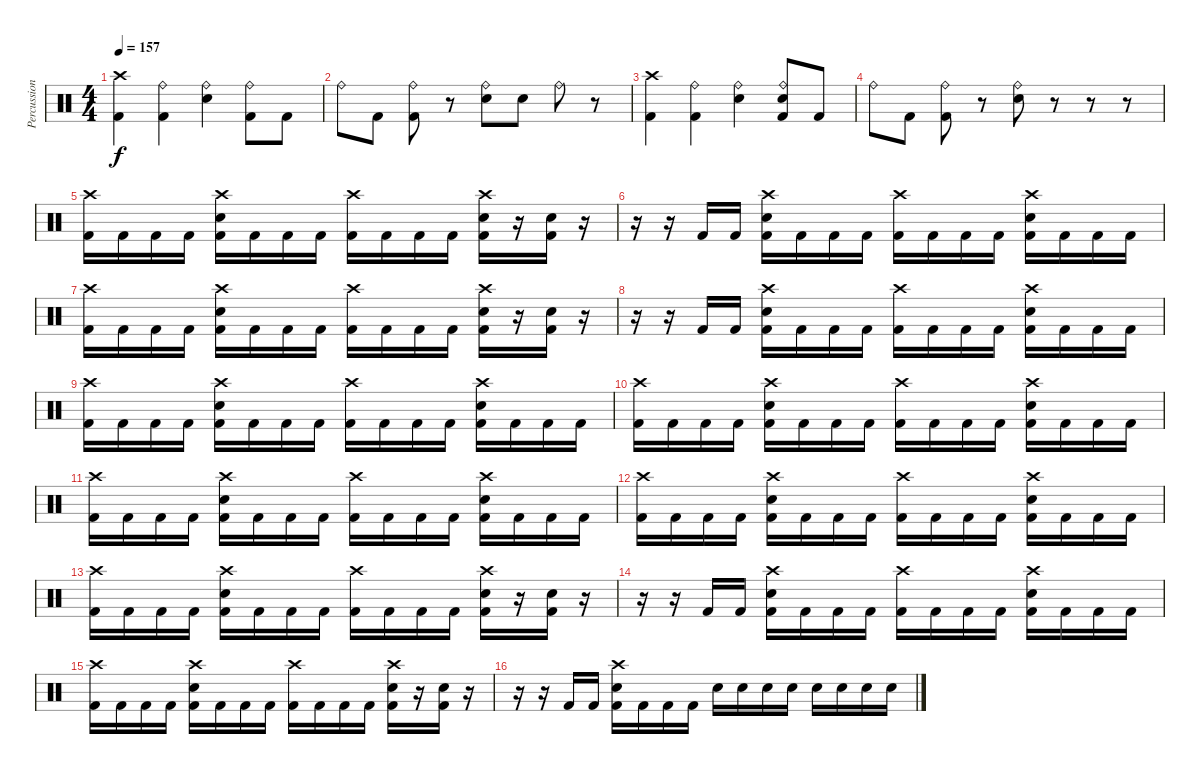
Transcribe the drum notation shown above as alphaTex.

\track ("Percussion" "Percussion") {instrument percussion}
\staff {score}
\articulation defaults
\ts (4 4)
\tempo 157
\clef neutral
\ks c
("Crash high (hit)" "Kick (hit) 2").4{dy f} ("Ride (bell)" "Kick (hit) 2").4 ("Ride (bell)" "Electric Snare (hit)").4 ("Ride (bell)" "Kick (hit) 2").8 "Kick (hit) 2".8 |
"Ride (bell)".8 "Kick (hit) 2".8 ("Ride (bell)" "Kick (hit) 2").8 r.8 ("Ride (bell)" "Electric Snare (hit)").8 "Electric Snare (hit)".8 "Ride (bell)".8 r.8 |
("Crash high (hit)" "Kick (hit) 2").4 ("Ride (bell)" "Kick (hit) 2").4 ("Ride (bell)" "Electric Snare (hit)").4 ("Ride (bell)" "Electric Snare (hit)" "Kick (hit) 2").8 "Kick (hit) 2".8 |
"Ride (bell)".8 "Kick (hit) 2".8 ("Ride (bell)" "Kick (hit) 2").8 r.8 ("Ride (bell)" "Electric Snare (hit)").8 r.8 r.8 r.8 |
("Crash high (hit)" "Kick (hit) 2").16 "Kick (hit) 2".16 "Kick (hit) 2".16 "Kick (hit) 2".16 ("Crash high (hit)" "Electric Snare (hit)" "Kick (hit) 2").16 "Kick (hit) 2".16 "Kick (hit) 2".16 "Kick (hit) 2".16 ("Crash high (hit)" "Kick (hit) 2").16 "Kick (hit) 2".16 "Kick (hit) 2".16 "Kick (hit) 2".16 ("Crash high (hit)" "Electric Snare (hit)" "Kick (hit) 2").16 r.16 ("Electric Snare (hit)" "Kick (hit) 2").16 r.16 |
r.16 r.16 "Kick (hit) 2".16 "Kick (hit) 2".16 ("Crash high (hit)" "Electric Snare (hit)" "Kick (hit) 2").16 "Kick (hit) 2".16 "Kick (hit) 2".16 "Kick (hit) 2".16 ("Crash high (hit)" "Kick (hit) 2").16 "Kick (hit) 2".16 "Kick (hit) 2".16 "Kick (hit) 2".16 ("Crash high (hit)" "Electric Snare (hit)" "Kick (hit) 2").16 "Kick (hit) 2".16 "Kick (hit) 2".16 "Kick (hit) 2".16 |
("Crash high (hit)" "Kick (hit) 2").16 "Kick (hit) 2".16 "Kick (hit) 2".16 "Kick (hit) 2".16 ("Crash high (hit)" "Electric Snare (hit)" "Kick (hit) 2").16 "Kick (hit) 2".16 "Kick (hit) 2".16 "Kick (hit) 2".16 ("Crash high (hit)" "Kick (hit) 2").16 "Kick (hit) 2".16 "Kick (hit) 2".16 "Kick (hit) 2".16 ("Crash high (hit)" "Electric Snare (hit)" "Kick (hit) 2").16 r.16 ("Electric Snare (hit)" "Kick (hit) 2").16 r.16 |
r.16 r.16 "Kick (hit) 2".16 "Kick (hit) 2".16 ("Crash high (hit)" "Electric Snare (hit)" "Kick (hit) 2").16 "Kick (hit) 2".16 "Kick (hit) 2".16 "Kick (hit) 2".16 ("Crash high (hit)" "Kick (hit) 2").16 "Kick (hit) 2".16 "Kick (hit) 2".16 "Kick (hit) 2".16 ("Crash high (hit)" "Electric Snare (hit)" "Kick (hit) 2").16 "Kick (hit) 2".16 "Kick (hit) 2".16 "Kick (hit) 2".16 |
("Crash high (hit)" "Kick (hit) 2").16 "Kick (hit) 2".16 "Kick (hit) 2".16 "Kick (hit) 2".16 ("Crash high (hit)" "Electric Snare (hit)" "Kick (hit) 2").16 "Kick (hit) 2".16 "Kick (hit) 2".16 "Kick (hit) 2".16 ("Crash high (hit)" "Kick (hit) 2").16 "Kick (hit) 2".16 "Kick (hit) 2".16 "Kick (hit) 2".16 ("Crash high (hit)" "Electric Snare (hit)" "Kick (hit) 2").16 "Kick (hit) 2".16 "Kick (hit) 2".16 "Kick (hit) 2".16 |
("Crash high (hit)" "Kick (hit) 2").16 "Kick (hit) 2".16 "Kick (hit) 2".16 "Kick (hit) 2".16 ("Crash high (hit)" "Electric Snare (hit)" "Kick (hit) 2").16 "Kick (hit) 2".16 "Kick (hit) 2".16 "Kick (hit) 2".16 ("Crash high (hit)" "Kick (hit) 2").16 "Kick (hit) 2".16 "Kick (hit) 2".16 "Kick (hit) 2".16 ("Crash high (hit)" "Electric Snare (hit)" "Kick (hit) 2").16 "Kick (hit) 2".16 "Kick (hit) 2".16 "Kick (hit) 2".16 |
("Crash high (hit)" "Kick (hit) 2").16 "Kick (hit) 2".16 "Kick (hit) 2".16 "Kick (hit) 2".16 ("Crash high (hit)" "Electric Snare (hit)" "Kick (hit) 2").16 "Kick (hit) 2".16 "Kick (hit) 2".16 "Kick (hit) 2".16 ("Crash high (hit)" "Kick (hit) 2").16 "Kick (hit) 2".16 "Kick (hit) 2".16 "Kick (hit) 2".16 ("Crash high (hit)" "Electric Snare (hit)" "Kick (hit) 2").16 "Kick (hit) 2".16 "Kick (hit) 2".16 "Kick (hit) 2".16 |
("Crash high (hit)" "Kick (hit) 2").16 "Kick (hit) 2".16 "Kick (hit) 2".16 "Kick (hit) 2".16 ("Crash high (hit)" "Electric Snare (hit)" "Kick (hit) 2").16 "Kick (hit) 2".16 "Kick (hit) 2".16 "Kick (hit) 2".16 ("Crash high (hit)" "Kick (hit) 2").16 "Kick (hit) 2".16 "Kick (hit) 2".16 "Kick (hit) 2".16 ("Crash high (hit)" "Electric Snare (hit)" "Kick (hit) 2").16 "Kick (hit) 2".16 "Kick (hit) 2".16 "Kick (hit) 2".16 |
("Crash high (hit)" "Kick (hit) 2").16 "Kick (hit) 2".16 "Kick (hit) 2".16 "Kick (hit) 2".16 ("Crash high (hit)" "Electric Snare (hit)" "Kick (hit) 2").16 "Kick (hit) 2".16 "Kick (hit) 2".16 "Kick (hit) 2".16 ("Crash high (hit)" "Kick (hit) 2").16 "Kick (hit) 2".16 "Kick (hit) 2".16 "Kick (hit) 2".16 ("Crash high (hit)" "Electric Snare (hit)" "Kick (hit) 2").16 r.16 ("Electric Snare (hit)" "Kick (hit) 2").16 r.16 |
r.16 r.16 "Kick (hit) 2".16 "Kick (hit) 2".16 ("Crash high (hit)" "Electric Snare (hit)" "Kick (hit) 2").16 "Kick (hit) 2".16 "Kick (hit) 2".16 "Kick (hit) 2".16 ("Crash high (hit)" "Kick (hit) 2").16 "Kick (hit) 2".16 "Kick (hit) 2".16 "Kick (hit) 2".16 ("Crash high (hit)" "Electric Snare (hit)" "Kick (hit) 2").16 "Kick (hit) 2".16 "Kick (hit) 2".16 "Kick (hit) 2".16 |
("Crash high (hit)" "Kick (hit) 2").16 "Kick (hit) 2".16 "Kick (hit) 2".16 "Kick (hit) 2".16 ("Crash high (hit)" "Electric Snare (hit)" "Kick (hit) 2").16 "Kick (hit) 2".16 "Kick (hit) 2".16 "Kick (hit) 2".16 ("Crash high (hit)" "Kick (hit) 2").16 "Kick (hit) 2".16 "Kick (hit) 2".16 "Kick (hit) 2".16 ("Crash high (hit)" "Electric Snare (hit)" "Kick (hit) 2").16 r.16 ("Electric Snare (hit)" "Kick (hit) 2").16 r.16 |
r.16 r.16 "Kick (hit) 2".16 "Kick (hit) 2".16 ("Crash high (hit)" "Electric Snare (hit)" "Kick (hit) 2").16 "Kick (hit) 2".16 "Kick (hit) 2".16 "Kick (hit) 2".16 "Electric Snare (hit)".16 "Electric Snare (hit)".16 "Electric Snare (hit)".16 "Electric Snare (hit)".16 "Electric Snare (hit)".16 "Electric Snare (hit)".16 "Electric Snare (hit)".16 "Electric Snare (hit)".16
